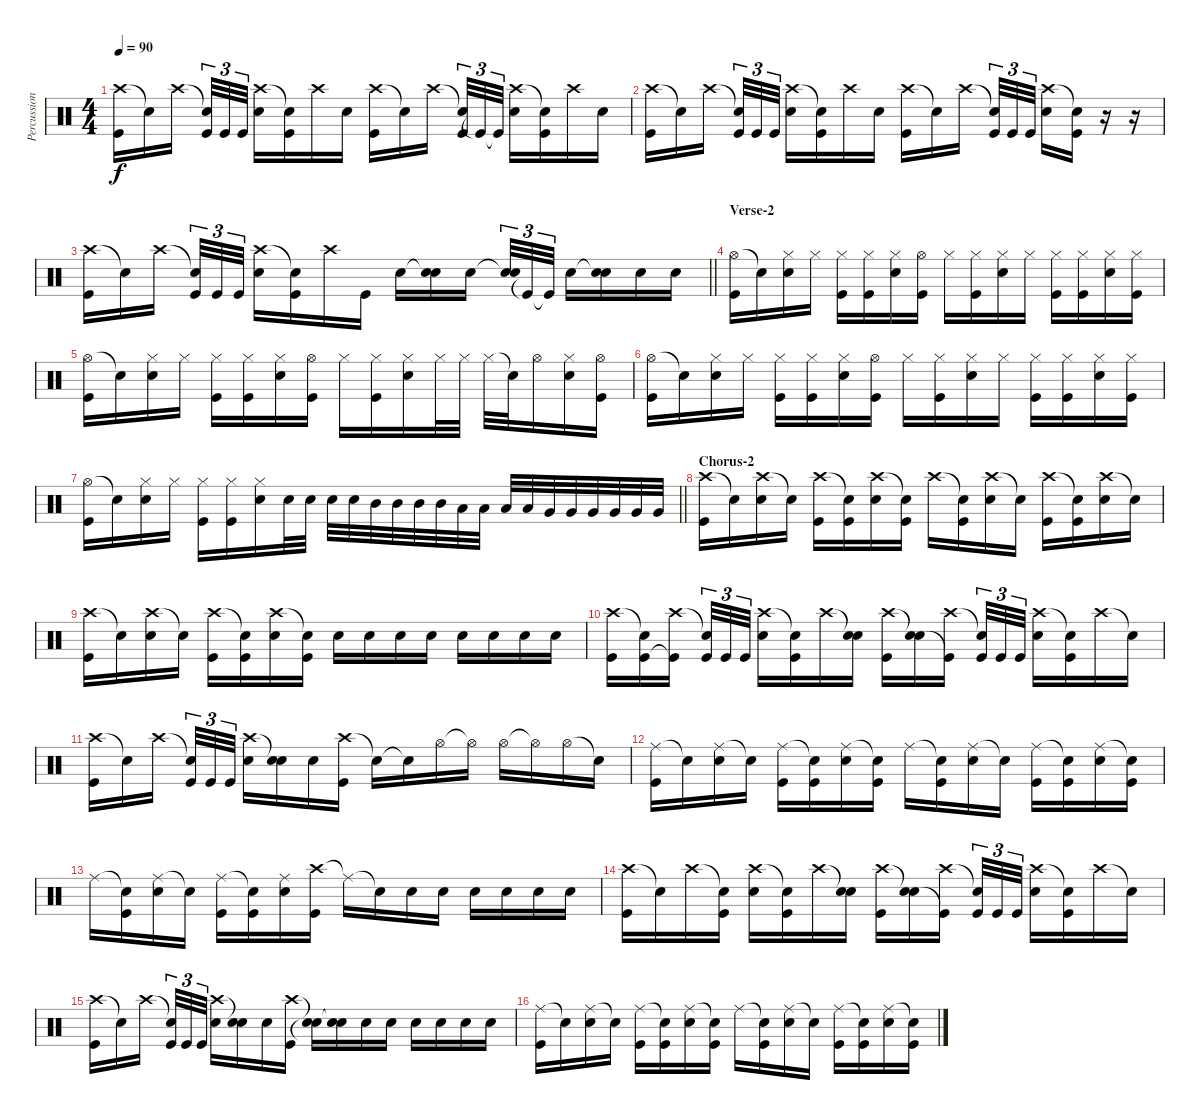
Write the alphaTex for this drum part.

\track ("Percussion" "Percussion") {instrument percussion}
\staff {score}
\articulation defaults
\ts (4 4)
\tempo 90
\clef neutral
\ks c
("Crash high (hit)" "Kick (hit)").16{dy f} "Snare (hit)"{t}.16 "Crash high (hit)".16 ("Snare (hit)"{t} "Kick (hit)").32{tu (3 2)} "Kick (hit)".32{tu (3 2)} "Kick (hit)".32{tu (3 2)} ("Crash high (hit)" "Electric Snare (hit)").16 ("Snare (hit)"{t} "Kick (hit)").16 "Crash high (hit)".16 "Electric Snare (hit)".16 ("Crash high (hit)" "Kick (hit)").16 "Snare (hit)"{t}.16 "Crash high (hit)".16 ("Snare (hit)"{t} "Kick (hit)").32{tu (3 2)} "Kick (hit)"{t}.32{tu (3 2)} "Kick (hit)"{t}.32{tu (3 2)} ("Crash high (hit)" "Electric Snare (hit)").16 ("Snare (hit)"{t} "Kick (hit)").16 "Crash high (hit)".16 "Electric Snare (hit)".16 |
("Crash high (hit)" "Kick (hit)").16 "Snare (hit)"{t}.16 "Crash high (hit)".16 ("Snare (hit)"{t} "Kick (hit)").32{tu (3 2)} "Kick (hit)".32{tu (3 2)} "Kick (hit)".32{tu (3 2)} ("Crash high (hit)" "Electric Snare (hit)").16 ("Snare (hit)"{t} "Kick (hit)").16 "Crash high (hit)".16 "Electric Snare (hit)".16 ("Crash high (hit)" "Kick (hit)").16 "Snare (hit)"{t}.16 "Crash high (hit)".16 ("Snare (hit)"{t} "Kick (hit)").32{tu (3 2)} "Kick (hit)".32{tu (3 2)} "Kick (hit)".32{tu (3 2)} ("Crash high (hit)" "Electric Snare (hit)").16 ("Snare (hit)"{t} "Kick (hit)").16 r.16 r.16 |
\barLineRight lightlight
("Crash high (hit)" "Kick (hit)").16 "Snare (hit)"{t}.16 "Crash high (hit)".16 ("Snare (hit)"{t} "Kick (hit)").32{tu (3 2)} "Kick (hit)".32{tu (3 2)} "Kick (hit)".32{tu (3 2)} ("Crash high (hit)" "Electric Snare (hit)").16 ("Snare (hit)"{t} "Kick (hit)").16 "Crash high (hit)".16 "Kick (hit)".16 "Electric Snare (hit)".16 ("Snare (hit)"{t} "Electric Snare (hit)").16 "Electric Snare (hit)".16 ("Snare (hit)"{t} "Electric Snare (hit)").32{tu (3 2)} "Kick (hit)"{t}.32{tu (3 2)} "Kick (hit)"{t}.32{tu (3 2)} "Electric Snare (hit)".16 ("Snare (hit)"{t} "Electric Snare (hit)").16 "Electric Snare (hit)".16 "Electric Snare (hit)".16 |
\section ("" "Verse-2")
("Hi-Hat (open)" "Kick (hit)").16 "Snare (hit)"{t}.16 ("Hi-Hat (closed)" "Electric Snare (hit)").16 "Hi-Hat (closed)".16 ("Hi-Hat (closed)" "Kick (hit)").16 ("Hi-Hat (closed)" "Kick (hit)").16 ("Hi-Hat (closed)" "Electric Snare (hit)").16 ("Hi-Hat (open)" "Kick (hit)").16 "Hi-Hat (closed)".16 ("Hi-Hat (closed)" "Kick (hit)").16 ("Hi-Hat (closed)" "Electric Snare (hit)").16 "Hi-Hat (closed)".16 ("Hi-Hat (closed)" "Kick (hit)").16 ("Hi-Hat (closed)" "Kick (hit)").16 ("Hi-Hat (closed)" "Electric Snare (hit)").16 ("Hi-Hat (closed)" "Kick (hit)").16 |
("Hi-Hat (open)" "Kick (hit)").16 "Snare (hit)"{t}.16 ("Hi-Hat (closed)" "Electric Snare (hit)").16 "Hi-Hat (closed)".16 ("Hi-Hat (closed)" "Kick (hit)").16 ("Hi-Hat (closed)" "Kick (hit)").16 ("Hi-Hat (closed)" "Electric Snare (hit)").16 ("Hi-Hat (open)" "Kick (hit)").16 "Hi-Hat (closed)".16 ("Hi-Hat (closed)" "Kick (hit)").16 ("Hi-Hat (closed)" "Electric Snare (hit)").16 "Hi-Hat (closed)".32 "Hi-Hat (closed)".32 "Hi-Hat (closed)".32 "Snare (hit)"{t}.32 "Hi-Hat (open)".16 ("Hi-Hat (closed)" "Electric Snare (hit)").16 ("Hi-Hat (open)" "Kick (hit)").16 |
("Hi-Hat (open)" "Kick (hit)").16 "Snare (hit)"{t}.16 ("Hi-Hat (closed)" "Electric Snare (hit)").16 "Hi-Hat (closed)".16 ("Hi-Hat (closed)" "Kick (hit)").16 ("Hi-Hat (closed)" "Kick (hit)").16 ("Hi-Hat (closed)" "Electric Snare (hit)").16 ("Hi-Hat (open)" "Kick (hit)").16 "Hi-Hat (closed)".16 ("Hi-Hat (closed)" "Kick (hit)").16 ("Hi-Hat (closed)" "Electric Snare (hit)").16 "Hi-Hat (closed)".16 ("Hi-Hat (closed)" "Kick (hit)").16 ("Hi-Hat (closed)" "Kick (hit)").16 ("Hi-Hat (closed)" "Electric Snare (hit)").16 ("Hi-Hat (closed)" "Kick (hit)").16 |
\barLineRight lightlight
("Hi-Hat (open)" "Kick (hit)").16 "Snare (hit)"{t}.16 ("Hi-Hat (closed)" "Electric Snare (hit)").16 "Hi-Hat (closed)".16 ("Hi-Hat (closed)" "Kick (hit)").16 ("Hi-Hat (closed)" "Kick (hit)").16 ("Hi-Hat (closed)" "Electric Snare (hit)").16 "Electric Snare (hit)".32 "Electric Snare (hit)".32 "Electric Snare (hit)".32 "Electric Snare (hit)".32 "Mid Tom (hit)".32 "Mid Tom (hit)".32 "Mid Tom (hit)".32 "Mid Tom (hit)".32 "Low Tom (hit)".32 "Low Tom (hit)".32 "Low Tom (hit)".32 "Low Tom (hit)".32 "Very Low Tom (hit)".32 "Very Low Tom (hit)".32 "Very Low Tom (hit)".32 "Very Low Tom (hit)".32 "Very Low Tom (hit)".32 "Very Low Tom (hit)".32 |
\section ("" "Chorus-2")
("Crash high (hit)" "Kick (hit)").16 "Snare (hit)"{t}.16 ("Crash high (hit)" "Electric Snare (hit)").16 "Snare (hit)"{t}.16 ("Crash high (hit)" "Kick (hit)").16 ("Snare (hit)"{t} "Kick (hit)").16 ("Crash high (hit)" "Electric Snare (hit)").16 ("Snare (hit)"{t} "Kick (hit)").16 "Crash high (hit)".16 ("Snare (hit)"{t} "Kick (hit)").16 ("Crash high (hit)" "Electric Snare (hit)").16 "Snare (hit)"{t}.16 ("Crash high (hit)" "Kick (hit)").16 ("Snare (hit)"{t} "Kick (hit)").16 ("Crash high (hit)" "Electric Snare (hit)").16 "Snare (hit)"{t}.16 |
("Crash high (hit)" "Kick (hit)").16 "Snare (hit)"{t}.16 ("Crash high (hit)" "Electric Snare (hit)").16 "Snare (hit)"{t}.16 ("Crash high (hit)" "Kick (hit)").16 ("Snare (hit)"{t} "Kick (hit)").16 ("Crash high (hit)" "Electric Snare (hit)").16 ("Snare (hit)"{t} "Kick (hit)").16 "Electric Snare (hit)".16 "Electric Snare (hit)".16 "Electric Snare (hit)".16 "Electric Snare (hit)".16 "Electric Snare (hit)".16 "Electric Snare (hit)".16 "Electric Snare (hit)".16 "Electric Snare (hit)".16 |
("Crash high (hit)" "Kick (hit)").16 ("Snare (hit)"{t} "Kick (hit)").16 ("Crash high (hit)" "Kick (hit)"{t}).16 ("Snare (hit)"{t} "Kick (hit)").32{tu (3 2)} "Kick (hit)".32{tu (3 2)} "Kick (hit)".32{tu (3 2)} ("Crash high (hit)" "Electric Snare (hit)").16 ("Snare (hit)"{t} "Kick (hit)").16 "Crash high (hit)".16 ("Snare (hit)"{t} "Electric Snare (hit)").16 ("Crash high (hit)" "Kick (hit)").16 ("Snare (hit)"{t} "Electric Snare (hit)").16 ("Crash high (hit)" "Kick (hit)"{t}).16 ("Snare (hit)"{t} "Kick (hit)").32{tu (3 2)} "Kick (hit)".32{tu (3 2)} "Kick (hit)".32{tu (3 2)} ("Crash high (hit)" "Electric Snare (hit)").16 ("Snare (hit)"{t} "Kick (hit)").16 "Crash high (hit)".16 "Snare (hit)"{t}.16 |
("Crash high (hit)" "Kick (hit)").16 "Snare (hit)"{t}.16 "Crash high (hit)".16 ("Snare (hit)"{t} "Kick (hit)").32{tu (3 2)} "Kick (hit)".32{tu (3 2)} "Kick (hit)".32{tu (3 2)} ("Crash high (hit)" "Electric Snare (hit)").16 ("Snare (hit)"{t} "Electric Snare (hit)").16 "Electric Snare (hit)".16 ("Crash high (hit)" "Kick (hit)").16 "Snare (hit)"{t}.16 "Snare (hit)"{t}.16 "Hi-Hat (open)".16 "Hi-Hat (open)"{t}.16 "Hi-Hat (open)".16 "Hi-Hat (open)"{t}.16 "Hi-Hat (open)".16 "Snare (hit)"{t}.16 |
("Ride (middle)" "Kick (hit)").16 "Snare (hit)"{t}.16 ("Ride (middle)" "Electric Snare (hit)").16 "Snare (hit)"{t}.16 ("Ride (middle)" "Kick (hit)").16 ("Snare (hit)"{t} "Kick (hit)").16 ("Ride (middle)" "Electric Snare (hit)").16 ("Snare (hit)"{t} "Kick (hit)").16 "Ride (middle)".16 ("Snare (hit)"{t} "Kick (hit)").16 ("Ride (middle)" "Electric Snare (hit)").16 "Snare (hit)"{t}.16 ("Ride (middle)" "Kick (hit)").16 ("Snare (hit)"{t} "Kick (hit)").16 ("Ride (middle)" "Electric Snare (hit)").16 ("Snare (hit)"{t} "Kick (hit)").16 |
"Ride (middle)".16 ("Snare (hit)"{t} "Kick (hit)").16 ("Ride (middle)" "Electric Snare (hit)").16 "Snare (hit)"{t}.16 ("Ride (middle)" "Kick (hit)").16 ("Snare (hit)"{t} "Kick (hit)").16 ("Ride (middle)" "Electric Snare (hit)").16 ("Crash high (hit)" "Kick (hit)").16 "Ride (middle)"{t}.16 "Electric Snare (hit)"{t}.16 "Electric Snare (hit)".16 "Electric Snare (hit)".16 "Electric Snare (hit)".16 "Electric Snare (hit)".16 "Electric Snare (hit)".16 "Electric Snare (hit)".16 |
("Crash high (hit)" "Kick (hit)").16 "Snare (hit)"{t}.16 "Crash high (hit)".16 ("Snare (hit)"{t} "Kick (hit)").16 ("Crash high (hit)" "Electric Snare (hit)").16 ("Snare (hit)"{t} "Kick (hit)").16 "Crash high (hit)".16 ("Snare (hit)"{t} "Electric Snare (hit)").16 ("Crash high (hit)" "Kick (hit)").16 ("Snare (hit)"{t} "Electric Snare (hit)").16 ("Crash high (hit)" "Kick (hit)"{t}).16 ("Snare (hit)"{t} "Kick (hit)").32{tu (3 2)} "Kick (hit)".32{tu (3 2)} "Kick (hit)".32{tu (3 2)} ("Crash high (hit)" "Electric Snare (hit)").16 ("Snare (hit)"{t} "Kick (hit)").16 "Crash high (hit)".16 "Snare (hit)"{t}.16 |
("Crash high (hit)" "Kick (hit)").16 "Snare (hit)"{t}.16 "Crash high (hit)".16 ("Snare (hit)"{t} "Kick (hit)").32{tu (3 2)} "Kick (hit)".32{tu (3 2)} "Kick (hit)".32{tu (3 2)} ("Crash high (hit)" "Electric Snare (hit)").16 ("Snare (hit)"{t} "Electric Snare (hit)").16 "Electric Snare (hit)".16 ("Crash high (hit)" "Kick (hit)").16 ("Snare (hit)"{t} "Electric Snare (hit)"{t}).16 ("Snare (hit)"{t} "Electric Snare (hit)").16 "Electric Snare (hit)".16 "Electric Snare (hit)".16 "Electric Snare (hit)".16 "Electric Snare (hit)".16 "Electric Snare (hit)".16 "Electric Snare (hit)".16 |
("Ride (middle)" "Kick (hit)").16 "Snare (hit)"{t}.16 ("Ride (middle)" "Electric Snare (hit)").16 "Snare (hit)"{t}.16 ("Ride (middle)" "Kick (hit)").16 ("Snare (hit)"{t} "Kick (hit)").16 ("Ride (middle)" "Electric Snare (hit)").16 ("Snare (hit)"{t} "Kick (hit)").16 "Ride (middle)".16 ("Snare (hit)"{t} "Kick (hit)").16 ("Ride (middle)" "Electric Snare (hit)").16 "Snare (hit)"{t}.16 ("Ride (middle)" "Kick (hit)").16 ("Snare (hit)"{t} "Kick (hit)").16 ("Ride (middle)" "Electric Snare (hit)").16 ("Snare (hit)"{t} "Kick (hit)").16
